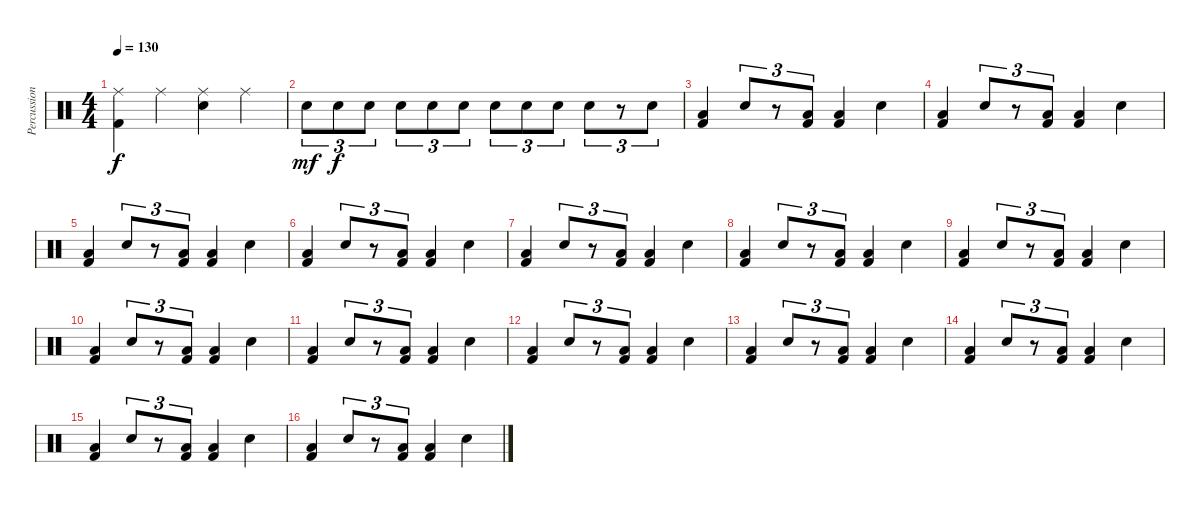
\track ("Percussion" "Percussion") {instrument percussion}
\staff {score}
\articulation defaults
\ts (4 4)
\tempo 130
\clef neutral
\ks c
("Ride (middle)" "Kick (hit) 2").4{dy f} "Ride (middle)".4 ("Ride (middle)" "Snare (hit) 2").4 "Ride (middle)".4 |
"Snare (hit) 2".8{tu (3 2) dy mf} "Snare (hit) 2".8{tu (3 2) dy f} "Snare (hit) 2".8{tu (3 2)} "Snare (hit) 2".8{tu (3 2)} "Snare (hit) 2".8{tu (3 2)} "Snare (hit) 2".8{tu (3 2)} "Snare (hit) 2".8{tu (3 2)} "Snare (hit) 2".8{tu (3 2)} "Snare (hit) 2".8{tu (3 2)} "Snare (hit) 2".8{tu (3 2)} r.8{tu (3 2)} "Snare (hit) 2".8{tu (3 2)} |
("Low Floor Tom (hit)" "Kick (hit) 2").4 "Snare (hit) 2".8{tu (3 2)} r.8{tu (3 2)} ("Low Floor Tom (hit)" "Kick (hit) 2").8{tu (3 2)} ("Low Floor Tom (hit)" "Kick (hit) 2").4 "Snare (hit) 2".4 |
("Low Floor Tom (hit)" "Kick (hit) 2").4 "Snare (hit) 2".8{tu (3 2)} r.8{tu (3 2)} ("Low Floor Tom (hit)" "Kick (hit) 2").8{tu (3 2)} ("Low Floor Tom (hit)" "Kick (hit) 2").4 "Snare (hit) 2".4 |
("Low Floor Tom (hit)" "Kick (hit) 2").4 "Snare (hit) 2".8{tu (3 2)} r.8{tu (3 2)} ("Low Floor Tom (hit)" "Kick (hit) 2").8{tu (3 2)} ("Low Floor Tom (hit)" "Kick (hit) 2").4 "Snare (hit) 2".4 |
("Low Floor Tom (hit)" "Kick (hit) 2").4 "Snare (hit) 2".8{tu (3 2)} r.8{tu (3 2)} ("Low Floor Tom (hit)" "Kick (hit) 2").8{tu (3 2)} ("Low Floor Tom (hit)" "Kick (hit) 2").4 "Snare (hit) 2".4 |
("Low Floor Tom (hit)" "Kick (hit) 2").4 "Snare (hit) 2".8{tu (3 2)} r.8{tu (3 2)} ("Low Floor Tom (hit)" "Kick (hit) 2").8{tu (3 2)} ("Low Floor Tom (hit)" "Kick (hit) 2").4 "Snare (hit) 2".4 |
("Low Floor Tom (hit)" "Kick (hit) 2").4 "Snare (hit) 2".8{tu (3 2)} r.8{tu (3 2)} ("Low Floor Tom (hit)" "Kick (hit) 2").8{tu (3 2)} ("Low Floor Tom (hit)" "Kick (hit) 2").4 "Snare (hit) 2".4 |
("Low Floor Tom (hit)" "Kick (hit) 2").4 "Snare (hit) 2".8{tu (3 2)} r.8{tu (3 2)} ("Low Floor Tom (hit)" "Kick (hit) 2").8{tu (3 2)} ("Low Floor Tom (hit)" "Kick (hit) 2").4 "Snare (hit) 2".4 |
("Low Floor Tom (hit)" "Kick (hit) 2").4 "Snare (hit) 2".8{tu (3 2)} r.8{tu (3 2)} ("Low Floor Tom (hit)" "Kick (hit) 2").8{tu (3 2)} ("Low Floor Tom (hit)" "Kick (hit) 2").4 "Snare (hit) 2".4 |
("Low Floor Tom (hit)" "Kick (hit) 2").4 "Snare (hit) 2".8{tu (3 2)} r.8{tu (3 2)} ("Low Floor Tom (hit)" "Kick (hit) 2").8{tu (3 2)} ("Low Floor Tom (hit)" "Kick (hit) 2").4 "Snare (hit) 2".4 |
("Low Floor Tom (hit)" "Kick (hit) 2").4 "Snare (hit) 2".8{tu (3 2)} r.8{tu (3 2)} ("Low Floor Tom (hit)" "Kick (hit) 2").8{tu (3 2)} ("Low Floor Tom (hit)" "Kick (hit) 2").4 "Snare (hit) 2".4 |
("Low Floor Tom (hit)" "Kick (hit) 2").4 "Snare (hit) 2".8{tu (3 2)} r.8{tu (3 2)} ("Low Floor Tom (hit)" "Kick (hit) 2").8{tu (3 2)} ("Low Floor Tom (hit)" "Kick (hit) 2").4 "Snare (hit) 2".4 |
("Low Floor Tom (hit)" "Kick (hit) 2").4 "Snare (hit) 2".8{tu (3 2)} r.8{tu (3 2)} ("Low Floor Tom (hit)" "Kick (hit) 2").8{tu (3 2)} ("Low Floor Tom (hit)" "Kick (hit) 2").4 "Snare (hit) 2".4 |
("Low Floor Tom (hit)" "Kick (hit) 2").4 "Snare (hit) 2".8{tu (3 2)} r.8{tu (3 2)} ("Low Floor Tom (hit)" "Kick (hit) 2").8{tu (3 2)} ("Low Floor Tom (hit)" "Kick (hit) 2").4 "Snare (hit) 2".4 |
("Low Floor Tom (hit)" "Kick (hit) 2").4 "Snare (hit) 2".8{tu (3 2)} r.8{tu (3 2)} ("Low Floor Tom (hit)" "Kick (hit) 2").8{tu (3 2)} ("Low Floor Tom (hit)" "Kick (hit) 2").4 "Snare (hit) 2".4
